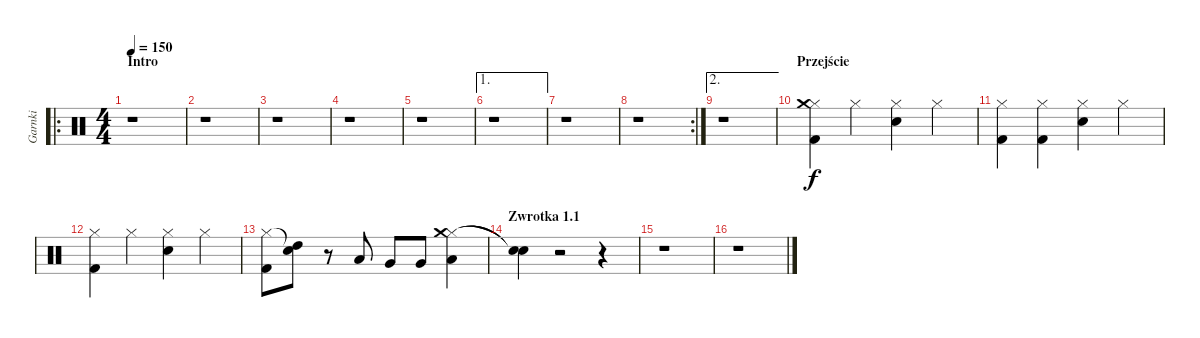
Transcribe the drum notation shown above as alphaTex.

\track ("Garnki" "Garnki") {instrument percussion}
\staff {score}
\articulation defaults
\ro
\ts (4 4)
\section ("" "Intro")
\tempo 150
\clef neutral
\ks c
r.1{dy f} |
r.1 |
r.1 |
r.1 |
r.1 |
\ae 1
r.1 |
r.1 |
\rc 2
r.1 |
\ae 2
r.1 |
\section ("" "Przejście")
("Hi-Hat (closed)" "Crash medium (hit)" "Kick (hit) 2").4 "Hi-Hat (closed)".4 ("Hi-Hat (closed)" "Snare (hit) 2").4 "Hi-Hat (closed)".4 |
("Hi-Hat (closed)" "Kick (hit) 2").4 ("Hi-Hat (closed)" "Kick (hit) 2").4 ("Hi-Hat (closed)" "Snare (hit) 2").4 "Hi-Hat (closed)".4 |
("Hi-Hat (closed)" "Kick (hit) 2").4 "Hi-Hat (closed)".4 ("Hi-Hat (closed)" "Snare (hit) 2").4 "Hi-Hat (closed)".4 |
("Hi-Hat (closed)" "Kick (hit) 2").8 ("Snare (hit)"{t} "High Tom (hit)").8 r.8 "Low Tom (hit)".8 "Very Low Tom (hit)".8 "Very Low Tom (hit)".8 ("Hi-Hat (closed)" "Crash medium (hit)" "Low Floor Tom (hit)").4 |
\section ("" "Zwrotka 1.1")
("Snare (hit)"{t} "Snare (hit)"{t}).4 r.2 r.4 |
r.1 |
r.1
